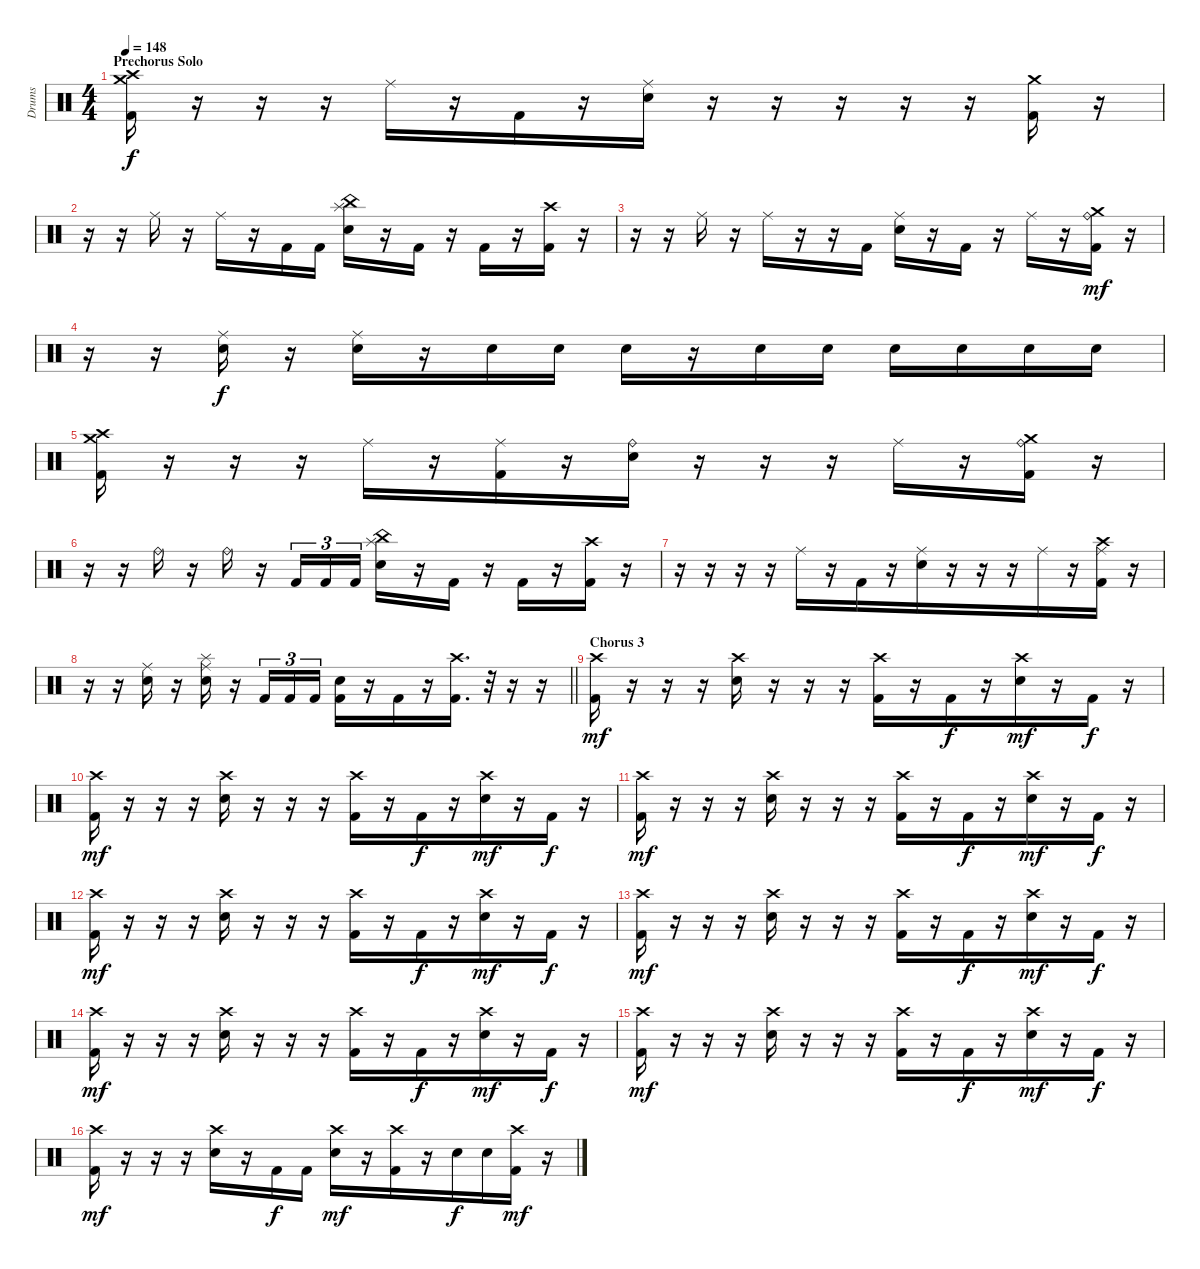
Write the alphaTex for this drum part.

\track ("Drums" "Drums") {instrument percussion}
\staff {score}
\articulation defaults
\ts (4 4)
\section ("" "Prechorus Solo")
\tempo 148
\clef neutral
\ks c
("Crash medium (hit)" "Crash high (hit)" "Kick (hit) 2").16{dy f} r.16 r.16 r.16 "Ride (middle)".16 r.16 "Kick (hit) 2".16{beam merge} r.16{beam merge} ("Ride (middle)" "Snare (hit) 2").16 r.16{beam merge} r.16 r.16{beam merge} r.16 r.16 ("Crash medium (hit)" "Kick (hit) 2").16{beam merge} r.16 |
r.16 r.16{beam merge} "Ride (middle)".16 r.16 "Ride (middle)".16 r.16 "Kick (hit) 2".16 "Kick (hit) 2".16 ("China (hit)" "Splash (hit)" "Snare (hit) 2").16 r.16 "Kick (hit) 2".16 r.16 "Kick (hit) 2".16 r.16 ("Crash high (hit)" "Kick (hit) 2").16 r.16 |
r.16 r.16{beam merge} "Ride (middle)".16 r.16 "Ride (middle)".16 r.16 r.16 "Kick (hit) 2".16 ("Ride (middle)" "Snare (hit) 2").16 r.16 "Kick (hit) 2".16 r.16 "Ride (middle)".16 r.16 ("Crash medium (hit)" "Ride (bell)" "Kick (hit) 2").16{dy mf} r.16 |
r.16 r.16{beam merge} ("Ride (middle)" "Snare (hit) 2").16{dy f} r.16 ("Ride (middle)" "Snare (hit) 2").16 r.16 "Snare (hit) 2".16 "Snare (hit) 2".16 "Snare (hit) 2".16 r.16 "Snare (hit) 2".16 "Snare (hit) 2".16 "Snare (hit) 2".16 "Snare (hit) 2".16 "Snare (hit) 2".16 "Snare (hit) 2".16 |
("Crash medium (hit)" "Crash high (hit)" "Kick (hit) 2").16 r.16 r.16 r.16 "Ride (middle)".16 r.16 ("Ride (middle)" "Kick (hit) 2").16{beam merge} r.16{beam merge} ("Ride (bell)" "Snare (hit) 2").16 r.16{beam merge} r.16 r.16{beam merge} "Ride (middle)".16 r.16 ("Crash medium (hit)" "Ride (bell)" "Kick (hit) 2").16{beam merge} r.16 |
r.16 r.16{beam merge} "Ride (bell)".16 r.16 "Ride (bell)".16 r.16 "Kick (hit) 2".16{tu (3 2)} "Kick (hit) 2".16{tu (3 2)} "Kick (hit) 2".16{tu (3 2)} ("China (hit)" "Splash (hit)" "Snare (hit) 2").16 r.16 "Kick (hit) 2".16 r.16 "Kick (hit) 2".16 r.16 ("Crash high (hit)" "Kick (hit) 2").16 r.16 |
r.16 r.16{beam merge} r.16 r.16 "Ride (middle)".16 r.16{beam merge} "Kick (hit) 2".16{beam merge} r.16 ("Ride (middle)" "Snare (hit) 2").16{beam merge} r.16{beam merge} r.16 r.16{beam merge} "Ride (middle)".16 r.16{beam merge} ("Crash high (hit)" "Ride (middle)" "Kick (hit) 2").16{beam merge} r.16 |
\barLineRight lightlight
r.16 r.16 ("Ride (middle)" "Snare (hit) 2").16 r.16{beam merge} ("Splash (hit)" "Ride (middle)" "Snare (hit) 2").16 r.16 "Kick (hit) 2".16{tu (3 2)} "Kick (hit) 2".16{tu (3 2)} "Kick (hit) 2".16{tu (3 2)} ("Snare (hit) 2" "Kick (hit) 2").16 r.16 "Kick (hit) 2".16{beam merge} r.16 ("Crash high (hit)" "Kick (hit) 2").16{d beam merge} r.32{volume 0 beam merge} r.16{beam merge} r.16 |
\section ("" "Chorus 3")
("Crash high (hit)" "Kick (hit) 2").16{dy mf volume 13} r.16 r.16 r.16 ("Crash high (hit)" "Snare (hit) 2").16 r.16{beam merge} r.16 r.16 ("Crash high (hit)" "Kick (hit) 2").16 r.16{beam merge} "Kick (hit) 2".16{dy f beam merge} r.16 ("Crash high (hit)" "Snare (hit) 2").16{dy mf beam merge} r.16 "Kick (hit) 2".16{dy f} r.16 |
("Crash high (hit)" "Kick (hit) 2").16{dy mf} r.16 r.16 r.16 ("Crash high (hit)" "Snare (hit) 2").16 r.16{beam merge} r.16 r.16 ("Crash high (hit)" "Kick (hit) 2").16 r.16{beam merge} "Kick (hit) 2".16{dy f beam merge} r.16 ("Crash high (hit)" "Snare (hit) 2").16{dy mf beam merge} r.16 "Kick (hit) 2".16{dy f} r.16 |
("Crash high (hit)" "Kick (hit) 2").16{dy mf} r.16 r.16 r.16 ("Crash high (hit)" "Snare (hit) 2").16 r.16{beam merge} r.16 r.16 ("Crash high (hit)" "Kick (hit) 2").16 r.16{beam merge} "Kick (hit) 2".16{dy f beam merge} r.16 ("Crash high (hit)" "Snare (hit) 2").16{dy mf beam merge} r.16 "Kick (hit) 2".16{dy f} r.16 |
("Crash high (hit)" "Kick (hit) 2").16{dy mf} r.16 r.16 r.16 ("Crash high (hit)" "Snare (hit) 2").16 r.16{beam merge} r.16 r.16 ("Crash high (hit)" "Kick (hit) 2").16 r.16{beam merge} "Kick (hit) 2".16{dy f beam merge} r.16 ("Crash high (hit)" "Snare (hit) 2").16{dy mf beam merge} r.16 "Kick (hit) 2".16{dy f} r.16 |
("Crash high (hit)" "Kick (hit) 2").16{dy mf} r.16 r.16 r.16 ("Crash high (hit)" "Snare (hit) 2").16 r.16{beam merge} r.16 r.16 ("Crash high (hit)" "Kick (hit) 2").16 r.16{beam merge} "Kick (hit) 2".16{dy f beam merge} r.16 ("Crash high (hit)" "Snare (hit) 2").16{dy mf beam merge} r.16 "Kick (hit) 2".16{dy f} r.16 |
("Crash high (hit)" "Kick (hit) 2").16{dy mf} r.16 r.16 r.16 ("Crash high (hit)" "Snare (hit) 2").16 r.16{beam merge} r.16 r.16 ("Crash high (hit)" "Kick (hit) 2").16 r.16{beam merge} "Kick (hit) 2".16{dy f beam merge} r.16 ("Crash high (hit)" "Snare (hit) 2").16{dy mf beam merge} r.16 "Kick (hit) 2".16{dy f} r.16 |
("Crash high (hit)" "Kick (hit) 2").16{dy mf} r.16 r.16 r.16 ("Crash high (hit)" "Snare (hit) 2").16 r.16{beam merge} r.16 r.16 ("Crash high (hit)" "Kick (hit) 2").16 r.16{beam merge} "Kick (hit) 2".16{dy f beam merge} r.16 ("Crash high (hit)" "Snare (hit) 2").16{dy mf beam merge} r.16 "Kick (hit) 2".16{dy f} r.16 |
("Crash high (hit)" "Kick (hit) 2").16{dy mf} r.16 r.16 r.16 ("Crash high (hit)" "Snare (hit) 2").16 r.16{beam merge} "Kick (hit) 2".16{dy f} "Kick (hit) 2".16 ("Crash high (hit)" "Snare (hit) 2").16{dy mf} r.16{beam merge} ("Crash high (hit)" "Kick (hit) 2").16{beam merge} r.16 "Snare (hit) 2".16{dy f beam merge} "Snare (hit) 2".16 ("Crash high (hit)" "Kick (hit) 2").16{dy mf} r.16
